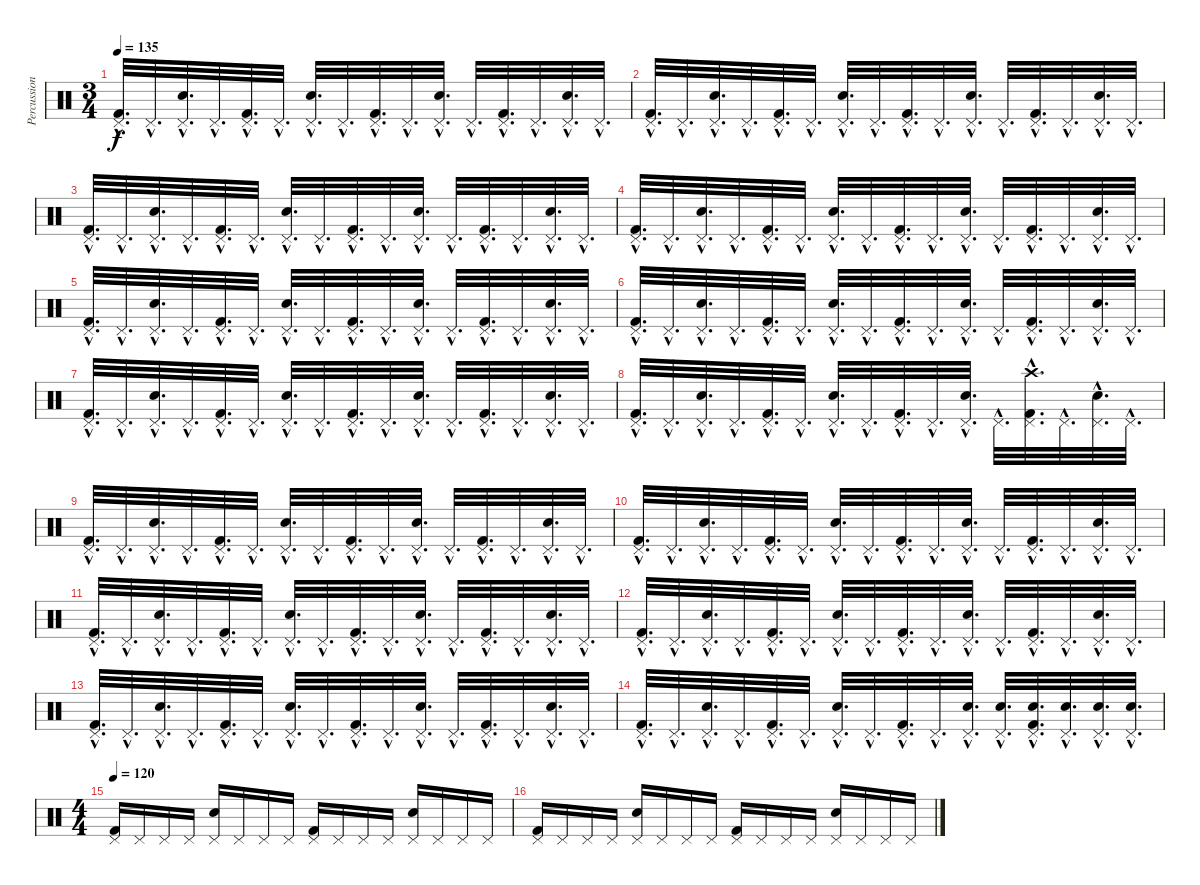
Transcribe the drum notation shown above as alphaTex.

\track ("Percussion" "Percussion") {instrument percussion}
\staff {score}
\articulation defaults
\ts (3 4)
\tempo 135
\clef neutral
\ks c
("Kick (hit) 2"{hac} "Pedal Hi-Hat (hit)"{hac}).32{d dy f} "Pedal Hi-Hat (hit)"{hac}.32{d} ("Pedal Hi-Hat (hit)"{hac} "Electric Snare (hit)"{hac}).32{d} "Pedal Hi-Hat (hit)"{hac}.32{d} ("Kick (hit) 2"{hac} "Pedal Hi-Hat (hit)"{hac}).32{d} "Pedal Hi-Hat (hit)"{hac}.32{d} ("Pedal Hi-Hat (hit)"{hac} "Electric Snare (hit)"{hac}).32{d} "Pedal Hi-Hat (hit)"{hac}.32{d} ("Kick (hit) 2"{hac} "Pedal Hi-Hat (hit)"{hac}).32{d} "Pedal Hi-Hat (hit)"{hac}.32{d} ("Pedal Hi-Hat (hit)"{hac} "Electric Snare (hit)"{hac}).32{d} "Pedal Hi-Hat (hit)"{hac}.32{d} ("Kick (hit) 2"{hac} "Pedal Hi-Hat (hit)"{hac}).32{d} "Pedal Hi-Hat (hit)"{hac}.32{d} ("Pedal Hi-Hat (hit)"{hac} "Electric Snare (hit)"{hac}).32{d} "Pedal Hi-Hat (hit)"{hac}.32{d} |
("Kick (hit) 2"{hac} "Pedal Hi-Hat (hit)"{hac}).32{d} "Pedal Hi-Hat (hit)"{hac}.32{d} ("Pedal Hi-Hat (hit)"{hac} "Electric Snare (hit)"{hac}).32{d} "Pedal Hi-Hat (hit)"{hac}.32{d} ("Kick (hit) 2"{hac} "Pedal Hi-Hat (hit)"{hac}).32{d} "Pedal Hi-Hat (hit)"{hac}.32{d} ("Pedal Hi-Hat (hit)"{hac} "Electric Snare (hit)"{hac}).32{d} "Pedal Hi-Hat (hit)"{hac}.32{d} ("Kick (hit) 2"{hac} "Pedal Hi-Hat (hit)"{hac}).32{d} "Pedal Hi-Hat (hit)"{hac}.32{d} ("Pedal Hi-Hat (hit)"{hac} "Electric Snare (hit)"{hac}).32{d} "Pedal Hi-Hat (hit)"{hac}.32{d} ("Kick (hit) 2"{hac} "Pedal Hi-Hat (hit)"{hac}).32{d} "Pedal Hi-Hat (hit)"{hac}.32{d} ("Pedal Hi-Hat (hit)"{hac} "Electric Snare (hit)"{hac}).32{d} "Pedal Hi-Hat (hit)"{hac}.32{d} |
("Kick (hit) 2"{hac} "Pedal Hi-Hat (hit)"{hac}).32{d} "Pedal Hi-Hat (hit)"{hac}.32{d} ("Pedal Hi-Hat (hit)"{hac} "Electric Snare (hit)"{hac}).32{d} "Pedal Hi-Hat (hit)"{hac}.32{d} ("Kick (hit) 2"{hac} "Pedal Hi-Hat (hit)"{hac}).32{d} "Pedal Hi-Hat (hit)"{hac}.32{d} ("Pedal Hi-Hat (hit)"{hac} "Electric Snare (hit)"{hac}).32{d} "Pedal Hi-Hat (hit)"{hac}.32{d} ("Kick (hit) 2"{hac} "Pedal Hi-Hat (hit)"{hac}).32{d} "Pedal Hi-Hat (hit)"{hac}.32{d} ("Pedal Hi-Hat (hit)"{hac} "Electric Snare (hit)"{hac}).32{d} "Pedal Hi-Hat (hit)"{hac}.32{d} ("Kick (hit) 2"{hac} "Pedal Hi-Hat (hit)"{hac}).32{d} "Pedal Hi-Hat (hit)"{hac}.32{d} ("Pedal Hi-Hat (hit)"{hac} "Electric Snare (hit)"{hac}).32{d} "Pedal Hi-Hat (hit)"{hac}.32{d} |
("Kick (hit) 2"{hac} "Pedal Hi-Hat (hit)"{hac}).32{d} "Pedal Hi-Hat (hit)"{hac}.32{d} ("Pedal Hi-Hat (hit)"{hac} "Electric Snare (hit)"{hac}).32{d} "Pedal Hi-Hat (hit)"{hac}.32{d} ("Kick (hit) 2"{hac} "Pedal Hi-Hat (hit)"{hac}).32{d} "Pedal Hi-Hat (hit)"{hac}.32{d} ("Pedal Hi-Hat (hit)"{hac} "Electric Snare (hit)"{hac}).32{d} "Pedal Hi-Hat (hit)"{hac}.32{d} ("Kick (hit) 2"{hac} "Pedal Hi-Hat (hit)"{hac}).32{d} "Pedal Hi-Hat (hit)"{hac}.32{d} ("Pedal Hi-Hat (hit)"{hac} "Electric Snare (hit)"{hac}).32{d} "Pedal Hi-Hat (hit)"{hac}.32{d} ("Kick (hit) 2"{hac} "Pedal Hi-Hat (hit)"{hac}).32{d} "Pedal Hi-Hat (hit)"{hac}.32{d} ("Pedal Hi-Hat (hit)"{hac} "Electric Snare (hit)"{hac}).32{d} "Pedal Hi-Hat (hit)"{hac}.32{d} |
("Kick (hit) 2"{hac} "Pedal Hi-Hat (hit)"{hac}).32{d} "Pedal Hi-Hat (hit)"{hac}.32{d} ("Pedal Hi-Hat (hit)"{hac} "Electric Snare (hit)"{hac}).32{d} "Pedal Hi-Hat (hit)"{hac}.32{d} ("Kick (hit) 2"{hac} "Pedal Hi-Hat (hit)"{hac}).32{d} "Pedal Hi-Hat (hit)"{hac}.32{d} ("Pedal Hi-Hat (hit)"{hac} "Electric Snare (hit)"{hac}).32{d} "Pedal Hi-Hat (hit)"{hac}.32{d} ("Kick (hit) 2"{hac} "Pedal Hi-Hat (hit)"{hac}).32{d} "Pedal Hi-Hat (hit)"{hac}.32{d} ("Pedal Hi-Hat (hit)"{hac} "Electric Snare (hit)"{hac}).32{d} "Pedal Hi-Hat (hit)"{hac}.32{d} ("Kick (hit) 2"{hac} "Pedal Hi-Hat (hit)"{hac}).32{d} "Pedal Hi-Hat (hit)"{hac}.32{d} ("Pedal Hi-Hat (hit)"{hac} "Electric Snare (hit)"{hac}).32{d} "Pedal Hi-Hat (hit)"{hac}.32{d} |
("Kick (hit) 2"{hac} "Pedal Hi-Hat (hit)"{hac}).32{d} "Pedal Hi-Hat (hit)"{hac}.32{d} ("Pedal Hi-Hat (hit)"{hac} "Electric Snare (hit)"{hac}).32{d} "Pedal Hi-Hat (hit)"{hac}.32{d} ("Kick (hit) 2"{hac} "Pedal Hi-Hat (hit)"{hac}).32{d} "Pedal Hi-Hat (hit)"{hac}.32{d} ("Pedal Hi-Hat (hit)"{hac} "Electric Snare (hit)"{hac}).32{d} "Pedal Hi-Hat (hit)"{hac}.32{d} ("Kick (hit) 2"{hac} "Pedal Hi-Hat (hit)"{hac}).32{d} "Pedal Hi-Hat (hit)"{hac}.32{d} ("Pedal Hi-Hat (hit)"{hac} "Electric Snare (hit)"{hac}).32{d} "Pedal Hi-Hat (hit)"{hac}.32{d} ("Kick (hit) 2"{hac} "Pedal Hi-Hat (hit)"{hac}).32{d} "Pedal Hi-Hat (hit)"{hac}.32{d} ("Pedal Hi-Hat (hit)"{hac} "Electric Snare (hit)"{hac}).32{d} "Pedal Hi-Hat (hit)"{hac}.32{d} |
("Kick (hit) 2"{hac} "Pedal Hi-Hat (hit)"{hac}).32{d} "Pedal Hi-Hat (hit)"{hac}.32{d} ("Pedal Hi-Hat (hit)"{hac} "Electric Snare (hit)"{hac}).32{d} "Pedal Hi-Hat (hit)"{hac}.32{d} ("Kick (hit) 2"{hac} "Pedal Hi-Hat (hit)"{hac}).32{d} "Pedal Hi-Hat (hit)"{hac}.32{d} ("Pedal Hi-Hat (hit)"{hac} "Electric Snare (hit)"{hac}).32{d} "Pedal Hi-Hat (hit)"{hac}.32{d} ("Kick (hit) 2"{hac} "Pedal Hi-Hat (hit)"{hac}).32{d} "Pedal Hi-Hat (hit)"{hac}.32{d} ("Pedal Hi-Hat (hit)"{hac} "Electric Snare (hit)"{hac}).32{d} "Pedal Hi-Hat (hit)"{hac}.32{d} ("Kick (hit) 2"{hac} "Pedal Hi-Hat (hit)"{hac}).32{d} "Pedal Hi-Hat (hit)"{hac}.32{d} ("Pedal Hi-Hat (hit)"{hac} "Electric Snare (hit)"{hac}).32{d} "Pedal Hi-Hat (hit)"{hac}.32{d} |
("Kick (hit) 2"{hac} "Pedal Hi-Hat (hit)"{hac}).32{d} "Pedal Hi-Hat (hit)"{hac}.32{d} ("Pedal Hi-Hat (hit)"{hac} "Electric Snare (hit)"{hac}).32{d} "Pedal Hi-Hat (hit)"{hac}.32{d} ("Kick (hit) 2"{hac} "Pedal Hi-Hat (hit)"{hac}).32{d} "Pedal Hi-Hat (hit)"{hac}.32{d} ("Pedal Hi-Hat (hit)"{hac} "Electric Snare (hit)"{hac}).32{d} "Pedal Hi-Hat (hit)"{hac}.32{d} ("Kick (hit) 2"{hac} "Pedal Hi-Hat (hit)"{hac}).32{d} "Pedal Hi-Hat (hit)"{hac}.32{d} ("Pedal Hi-Hat (hit)"{hac} "Electric Snare (hit)"{hac}).32{d} "Pedal Hi-Hat (hit)"{hac}.32{d} ("Kick (hit) 2"{hac} "Pedal Hi-Hat (hit)"{hac} "Crash high (hit)"{hac}).32{d} "Pedal Hi-Hat (hit)"{hac}.32{d} ("Pedal Hi-Hat (hit)"{hac} "Electric Snare (hit)"{hac}).32{d} "Pedal Hi-Hat (hit)"{hac}.32{d} |
("Kick (hit) 2"{hac} "Pedal Hi-Hat (hit)"{hac}).32{d} "Pedal Hi-Hat (hit)"{hac}.32{d} ("Pedal Hi-Hat (hit)"{hac} "Electric Snare (hit)"{hac}).32{d} "Pedal Hi-Hat (hit)"{hac}.32{d} ("Kick (hit) 2"{hac} "Pedal Hi-Hat (hit)"{hac}).32{d} "Pedal Hi-Hat (hit)"{hac}.32{d} ("Pedal Hi-Hat (hit)"{hac} "Electric Snare (hit)"{hac}).32{d} "Pedal Hi-Hat (hit)"{hac}.32{d} ("Kick (hit) 2"{hac} "Pedal Hi-Hat (hit)"{hac}).32{d} "Pedal Hi-Hat (hit)"{hac}.32{d} ("Pedal Hi-Hat (hit)"{hac} "Electric Snare (hit)"{hac}).32{d} "Pedal Hi-Hat (hit)"{hac}.32{d} ("Kick (hit) 2"{hac} "Pedal Hi-Hat (hit)"{hac}).32{d} "Pedal Hi-Hat (hit)"{hac}.32{d} ("Pedal Hi-Hat (hit)"{hac} "Electric Snare (hit)"{hac}).32{d} "Pedal Hi-Hat (hit)"{hac}.32{d} |
("Kick (hit) 2"{hac} "Pedal Hi-Hat (hit)"{hac}).32{d} "Pedal Hi-Hat (hit)"{hac}.32{d} ("Pedal Hi-Hat (hit)"{hac} "Electric Snare (hit)"{hac}).32{d} "Pedal Hi-Hat (hit)"{hac}.32{d} ("Kick (hit) 2"{hac} "Pedal Hi-Hat (hit)"{hac}).32{d} "Pedal Hi-Hat (hit)"{hac}.32{d} ("Pedal Hi-Hat (hit)"{hac} "Electric Snare (hit)"{hac}).32{d} "Pedal Hi-Hat (hit)"{hac}.32{d} ("Kick (hit) 2"{hac} "Pedal Hi-Hat (hit)"{hac}).32{d} "Pedal Hi-Hat (hit)"{hac}.32{d} ("Pedal Hi-Hat (hit)"{hac} "Electric Snare (hit)"{hac}).32{d} "Pedal Hi-Hat (hit)"{hac}.32{d} ("Kick (hit) 2"{hac} "Pedal Hi-Hat (hit)"{hac}).32{d} "Pedal Hi-Hat (hit)"{hac}.32{d} ("Pedal Hi-Hat (hit)"{hac} "Electric Snare (hit)"{hac}).32{d} "Pedal Hi-Hat (hit)"{hac}.32{d} |
("Kick (hit) 2"{hac} "Pedal Hi-Hat (hit)"{hac}).32{d} "Pedal Hi-Hat (hit)"{hac}.32{d} ("Pedal Hi-Hat (hit)"{hac} "Electric Snare (hit)"{hac}).32{d} "Pedal Hi-Hat (hit)"{hac}.32{d} ("Kick (hit) 2"{hac} "Pedal Hi-Hat (hit)"{hac}).32{d} "Pedal Hi-Hat (hit)"{hac}.32{d} ("Pedal Hi-Hat (hit)"{hac} "Electric Snare (hit)"{hac}).32{d} "Pedal Hi-Hat (hit)"{hac}.32{d} ("Kick (hit) 2"{hac} "Pedal Hi-Hat (hit)"{hac}).32{d} "Pedal Hi-Hat (hit)"{hac}.32{d} ("Pedal Hi-Hat (hit)"{hac} "Electric Snare (hit)"{hac}).32{d} "Pedal Hi-Hat (hit)"{hac}.32{d} ("Kick (hit) 2"{hac} "Pedal Hi-Hat (hit)"{hac}).32{d} "Pedal Hi-Hat (hit)"{hac}.32{d} ("Pedal Hi-Hat (hit)"{hac} "Electric Snare (hit)"{hac}).32{d} "Pedal Hi-Hat (hit)"{hac}.32{d} |
("Kick (hit) 2"{hac} "Pedal Hi-Hat (hit)"{hac}).32{d} "Pedal Hi-Hat (hit)"{hac}.32{d} ("Pedal Hi-Hat (hit)"{hac} "Electric Snare (hit)"{hac}).32{d} "Pedal Hi-Hat (hit)"{hac}.32{d} ("Kick (hit) 2"{hac} "Pedal Hi-Hat (hit)"{hac}).32{d} "Pedal Hi-Hat (hit)"{hac}.32{d} ("Pedal Hi-Hat (hit)"{hac} "Electric Snare (hit)"{hac}).32{d} "Pedal Hi-Hat (hit)"{hac}.32{d} ("Kick (hit) 2"{hac} "Pedal Hi-Hat (hit)"{hac}).32{d} "Pedal Hi-Hat (hit)"{hac}.32{d} ("Pedal Hi-Hat (hit)"{hac} "Electric Snare (hit)"{hac}).32{d} "Pedal Hi-Hat (hit)"{hac}.32{d} ("Kick (hit) 2"{hac} "Pedal Hi-Hat (hit)"{hac}).32{d} "Pedal Hi-Hat (hit)"{hac}.32{d} ("Pedal Hi-Hat (hit)"{hac} "Electric Snare (hit)"{hac}).32{d} "Pedal Hi-Hat (hit)"{hac}.32{d} |
("Kick (hit) 2"{hac} "Pedal Hi-Hat (hit)"{hac}).32{d} "Pedal Hi-Hat (hit)"{hac}.32{d} ("Pedal Hi-Hat (hit)"{hac} "Electric Snare (hit)"{hac}).32{d} "Pedal Hi-Hat (hit)"{hac}.32{d} ("Kick (hit) 2"{hac} "Pedal Hi-Hat (hit)"{hac}).32{d} "Pedal Hi-Hat (hit)"{hac}.32{d} ("Pedal Hi-Hat (hit)"{hac} "Electric Snare (hit)"{hac}).32{d} "Pedal Hi-Hat (hit)"{hac}.32{d} ("Kick (hit) 2"{hac} "Pedal Hi-Hat (hit)"{hac}).32{d} "Pedal Hi-Hat (hit)"{hac}.32{d} ("Pedal Hi-Hat (hit)"{hac} "Electric Snare (hit)"{hac}).32{d} "Pedal Hi-Hat (hit)"{hac}.32{d} ("Kick (hit) 2"{hac} "Pedal Hi-Hat (hit)"{hac}).32{d} "Pedal Hi-Hat (hit)"{hac}.32{d} ("Pedal Hi-Hat (hit)"{hac} "Electric Snare (hit)"{hac}).32{d} "Pedal Hi-Hat (hit)"{hac}.32{d} |
("Kick (hit) 2"{hac} "Pedal Hi-Hat (hit)"{hac}).32{d} "Pedal Hi-Hat (hit)"{hac}.32{d} ("Pedal Hi-Hat (hit)"{hac} "Electric Snare (hit)"{hac}).32{d} "Pedal Hi-Hat (hit)"{hac}.32{d} ("Kick (hit) 2"{hac} "Pedal Hi-Hat (hit)"{hac}).32{d} "Pedal Hi-Hat (hit)"{hac}.32{d} ("Pedal Hi-Hat (hit)"{hac} "Electric Snare (hit)"{hac}).32{d} "Pedal Hi-Hat (hit)"{hac}.32{d} ("Kick (hit) 2"{hac} "Pedal Hi-Hat (hit)"{hac}).32{d} "Pedal Hi-Hat (hit)"{hac}.32{d} ("Pedal Hi-Hat (hit)"{hac} "Electric Snare (hit)"{hac}).32{d} ("Pedal Hi-Hat (hit)"{hac} "Electric Snare (hit)"{hac}).32{d} ("Kick (hit) 2"{hac} "Pedal Hi-Hat (hit)"{hac} "Electric Snare (hit)"{hac}).32{d} ("Pedal Hi-Hat (hit)"{hac} "Electric Snare (hit)"{hac}).32{d} ("Pedal Hi-Hat (hit)"{hac} "Electric Snare (hit)"{hac}).32{d} ("Pedal Hi-Hat (hit)"{hac} "Electric Snare (hit)"{hac}).32{d} |
\ts (4 4)
\tempo 120
("Kick (hit) 2" "Pedal Hi-Hat (hit)").16 "Pedal Hi-Hat (hit)".16 "Pedal Hi-Hat (hit)".16 "Pedal Hi-Hat (hit)".16 ("Pedal Hi-Hat (hit)" "Electric Snare (hit)").16 "Pedal Hi-Hat (hit)".16 "Pedal Hi-Hat (hit)".16 "Pedal Hi-Hat (hit)".16 ("Kick (hit) 2" "Pedal Hi-Hat (hit)").16 "Pedal Hi-Hat (hit)".16 "Pedal Hi-Hat (hit)".16 "Pedal Hi-Hat (hit)".16 ("Pedal Hi-Hat (hit)" "Electric Snare (hit)").16 "Pedal Hi-Hat (hit)".16 "Pedal Hi-Hat (hit)".16 "Pedal Hi-Hat (hit)".16 |
("Kick (hit) 2" "Pedal Hi-Hat (hit)").16 "Pedal Hi-Hat (hit)".16 "Pedal Hi-Hat (hit)".16 "Pedal Hi-Hat (hit)".16 ("Pedal Hi-Hat (hit)" "Electric Snare (hit)").16 "Pedal Hi-Hat (hit)".16 "Pedal Hi-Hat (hit)".16 "Pedal Hi-Hat (hit)".16 ("Kick (hit) 2" "Pedal Hi-Hat (hit)").16 "Pedal Hi-Hat (hit)".16 "Pedal Hi-Hat (hit)".16 "Pedal Hi-Hat (hit)".16 ("Pedal Hi-Hat (hit)" "Electric Snare (hit)").16 "Pedal Hi-Hat (hit)".16 "Pedal Hi-Hat (hit)".16 "Pedal Hi-Hat (hit)".16
